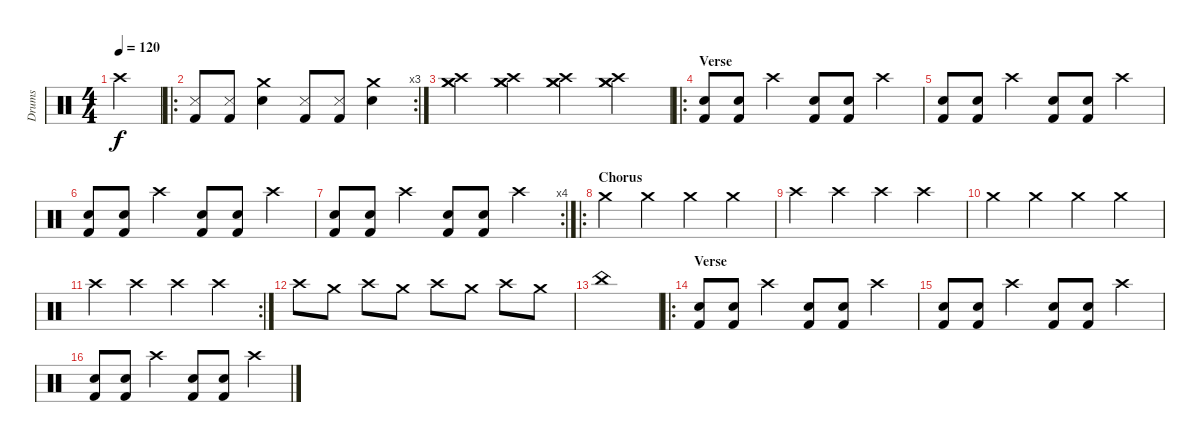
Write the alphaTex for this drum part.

\track ("Drums" "Drums") {instrument percussion}
\staff {score}
\articulation defaults
\ts (4 4)
\tempo 120
\clef neutral
\ks c "Crash high (hit)".4{dy f}
|
\ro
\rc 3
("Snare (side stick) 3" "Kick (hit) 2").8 ("Snare (side stick) 3" "Kick (hit) 2").8 ("Crash medium (hit)" "Snare (hit) 2").4 ("Snare (side stick) 3" "Kick (hit) 2").8 ("Snare (side stick) 3" "Kick (hit) 2").8 ("Crash medium (hit)" "Snare (hit) 2").4 |
("Crash medium (hit)" "Crash high (hit)" "Crash medium (hit)").4 ("Crash medium (hit)" "Crash high (hit)" "Crash medium (hit)").4 ("Crash medium (hit)" "Crash high (hit)" "Crash medium (hit)").4 ("Crash medium (hit)" "Crash high (hit)" "Crash medium (hit)").4 |
\ro
\section ("" "Verse")
("Kick (hit) 2" "Snare (hit) 2").8 ("Kick (hit) 2" "Snare (hit) 2").8 "Crash high (hit)".4 ("Snare (hit) 2" "Kick (hit) 2").8 ("Kick (hit) 2" "Snare (hit) 2").8 "Crash high (hit)".4 |
("Kick (hit) 2" "Snare (hit) 2").8 ("Kick (hit) 2" "Snare (hit) 2").8 "Crash high (hit)".4 ("Snare (hit) 2" "Kick (hit) 2").8 ("Kick (hit) 2" "Snare (hit) 2").8 "Crash high (hit)".4 |
("Kick (hit) 2" "Snare (hit) 2").8 ("Kick (hit) 2" "Snare (hit) 2").8 "Crash high (hit)".4 ("Snare (hit) 2" "Kick (hit) 2").8 ("Kick (hit) 2" "Snare (hit) 2").8 "Crash high (hit)".4 |
\rc 4
("Kick (hit) 2" "Snare (hit) 2").8 ("Kick (hit) 2" "Snare (hit) 2").8 "Crash high (hit)".4 ("Snare (hit) 2" "Kick (hit) 2").8 ("Kick (hit) 2" "Snare (hit) 2").8 "Crash high (hit)".4 |
\ro
\section ("" "Chorus")
"Crash medium (hit)".4 "Crash medium (hit)".4 "Crash medium (hit)".4 "Crash medium (hit)".4 |
"Crash high (hit)".4 "Crash high (hit)".4 "Crash high (hit)".4 "Crash high (hit)".4 |
"Crash medium (hit)".4 "Crash medium (hit)".4 "Crash medium (hit)".4 "Crash medium (hit)".4 |
\rc 2 "Crash high (hit)".4 "Crash high (hit)".4 "Crash high (hit)".4 "Crash high (hit)".4
|
"Crash high (hit)".8 "Crash medium (hit)".8 "Crash high (hit)".8 "Crash medium (hit)".8 "Crash high (hit)".8 "Crash medium (hit)".8 "Crash high (hit)".8 "Crash medium (hit)".8 |
"China (hit)".1 |
\ro
\section ("" "Verse")
("Kick (hit) 2" "Snare (hit) 2").8 ("Kick (hit) 2" "Snare (hit) 2").8 "Crash high (hit)".4 ("Snare (hit) 2" "Kick (hit) 2").8 ("Kick (hit) 2" "Snare (hit) 2").8 "Crash high (hit)".4 |
("Kick (hit) 2" "Snare (hit) 2").8 ("Kick (hit) 2" "Snare (hit) 2").8 "Crash high (hit)".4 ("Snare (hit) 2" "Kick (hit) 2").8 ("Kick (hit) 2" "Snare (hit) 2").8 "Crash high (hit)".4 |
("Kick (hit) 2" "Snare (hit) 2").8 ("Kick (hit) 2" "Snare (hit) 2").8 "Crash high (hit)".4 ("Snare (hit) 2" "Kick (hit) 2").8 ("Kick (hit) 2" "Snare (hit) 2").8 "Crash high (hit)".4
